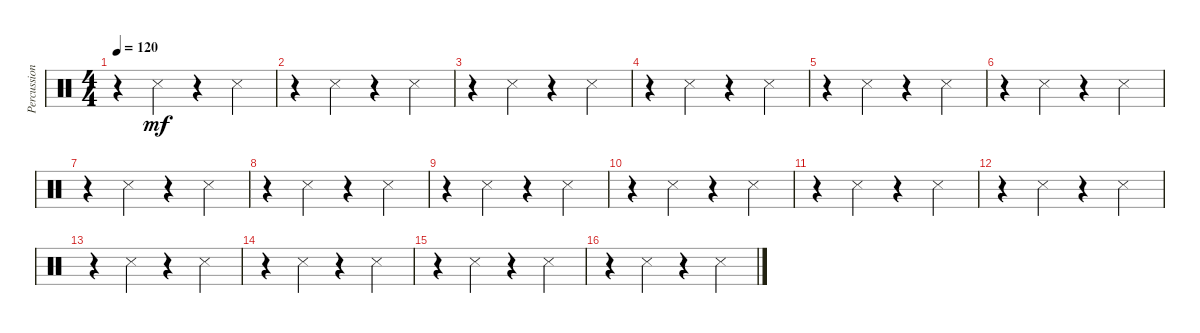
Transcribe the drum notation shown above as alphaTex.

\track ("Percussion" "Percussion") {instrument percussion}
\staff {score}
\articulation defaults
\ts (4 4)
\tempo 120
\clef neutral
\ks c
r.4{dy mf} "Snare (side stick) 3".4 r.4 "Snare (side stick) 3".4 |
r.4 "Snare (side stick) 3".4 r.4 "Snare (side stick) 3".4 |
r.4 "Snare (side stick) 3".4 r.4 "Snare (side stick) 3".4 |
r.4 "Snare (side stick) 3".4 r.4 "Snare (side stick) 3".4 |
r.4 "Snare (side stick) 3".4 r.4 "Snare (side stick) 3".4 |
r.4 "Snare (side stick) 3".4 r.4 "Snare (side stick) 3".4 |
r.4 "Snare (side stick) 3".4 r.4 "Snare (side stick) 3".4 |
r.4 "Snare (side stick) 3".4 r.4 "Snare (side stick) 3".4 |
r.4 "Snare (side stick) 3".4 r.4 "Snare (side stick) 3".4 |
r.4 "Snare (side stick) 3".4 r.4 "Snare (side stick) 3".4 |
r.4 "Snare (side stick) 3".4 r.4 "Snare (side stick) 3".4 |
r.4 "Snare (side stick) 3".4 r.4 "Snare (side stick) 3".4 |
r.4 "Snare (side stick) 3".4 r.4 "Snare (side stick) 3".4 |
r.4 "Snare (side stick) 3".4 r.4 "Snare (side stick) 3".4 |
r.4 "Snare (side stick) 3".4 r.4 "Snare (side stick) 3".4 |
r.4 "Snare (side stick) 3".4 r.4 "Snare (side stick) 3".4
